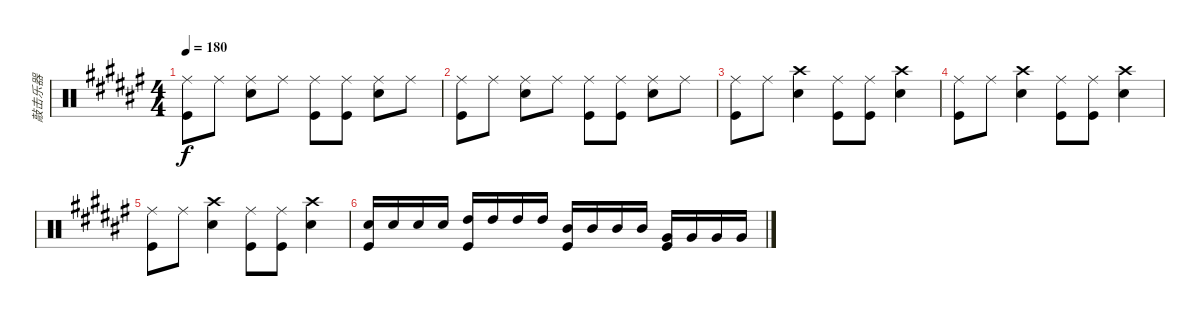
\track ("敲击乐器" "敲击乐器") {instrument percussion}
\staff {score}
\articulation defaults
\ts (4 4)
\tempo 180
\clef neutral
\ks f#
("Ride (middle)" "Kick (hit)").8{dy f} "Ride (middle)".8 ("Ride (middle)" "Electric Snare (hit)").8 "Ride (middle)".8 ("Ride (middle)" "Kick (hit)").8 ("Ride (middle)" "Kick (hit)").8 ("Ride (middle)" "Electric Snare (hit)").8 "Ride (middle)".8 |
("Ride (middle)" "Kick (hit)").8 "Ride (middle)".8 ("Ride (middle)" "Electric Snare (hit)").8 "Ride (middle)".8 ("Ride (middle)" "Kick (hit)").8 ("Ride (middle)" "Kick (hit)").8 ("Ride (middle)" "Electric Snare (hit)").8 "Ride (middle)".8 |
("Ride (middle)" "Kick (hit)").8 "Ride (middle)".8 ("Crash high (hit)" "Electric Snare (hit)").4 ("Ride (middle)" "Kick (hit)").8 ("Ride (middle)" "Kick (hit)").8 ("Crash high (hit)" "Electric Snare (hit)").4 |
("Ride (middle)" "Kick (hit)").8 "Ride (middle)".8 ("Crash high (hit)" "Electric Snare (hit)").4 ("Ride (middle)" "Kick (hit)").8 ("Ride (middle)" "Kick (hit)").8 ("Crash high (hit)" "Electric Snare (hit)").4 |
("Ride (middle)" "Kick (hit)").8 "Ride (middle)".8 ("Crash high (hit)" "Electric Snare (hit)").4 ("Ride (middle)" "Kick (hit)").8 ("Ride (middle)" "Kick (hit)").8 ("Crash high (hit)" "Electric Snare (hit)").4 |
("Electric Snare (hit)" "Kick (hit)").16 "Electric Snare (hit)".16 "Electric Snare (hit)".16 "Electric Snare (hit)".16 ("High Tom (hit)" "Kick (hit)").16 "High Tom (hit)".16 "High Tom (hit)".16 "High Tom (hit)".16 ("Mid Tom (hit)" "Kick (hit)").16 "Mid Tom (hit)".16 "Mid Tom (hit)".16 "Mid Tom (hit)".16 ("Very Low Tom (hit)" "Kick (hit)").16 "Very Low Tom (hit)".16 "Very Low Tom (hit)".16 "Very Low Tom (hit)".16
